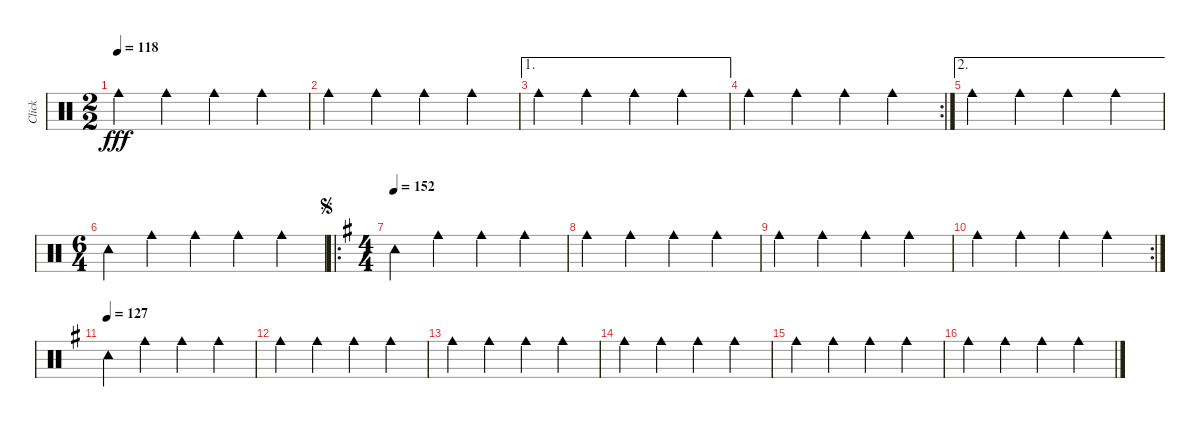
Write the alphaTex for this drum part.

\track ("Click" "Click") {mute instrument percussion}
\staff {score}
\articulation defaults
\ts (2 2)
\tempo 118
\clef neutral
\ks c "Cowbell medium (hit)".4{dy fff} "Cowbell medium (hit)".4 "Cowbell medium (hit)".4 "Cowbell medium (hit)".4
|
"Cowbell medium (hit)".4 "Cowbell medium (hit)".4 "Cowbell medium (hit)".4 "Cowbell medium (hit)".4 |
\ae 1 "Cowbell medium (hit)".4 "Cowbell medium (hit)".4 "Cowbell medium (hit)".4 "Cowbell medium (hit)".4
|
\rc 2 "Cowbell medium (hit)".4 "Cowbell medium (hit)".4 "Cowbell medium (hit)".4 "Cowbell medium (hit)".4
|
\ae 2 "Cowbell medium (hit)".4 "Cowbell medium (hit)".4 "Cowbell medium (hit)".4 "Cowbell medium (hit)".4
|
\ts (6 4)
"Tambourine (hit)".4 "Cowbell medium (hit)".4 "Cowbell medium (hit)".4 "Cowbell medium (hit)".4 "Cowbell medium (hit)".4 |
\ro
\ts (4 4)
\jump segno
\tempo 152
\ks g "Tambourine (hit)".4 "Cowbell medium (hit)".4 "Cowbell medium (hit)".4 "Cowbell medium (hit)".4
|
"Cowbell medium (hit)".4 "Cowbell medium (hit)".4 "Cowbell medium (hit)".4 "Cowbell medium (hit)".4 |
"Cowbell medium (hit)".4 "Cowbell medium (hit)".4 "Cowbell medium (hit)".4 "Cowbell medium (hit)".4 |
\rc 2 "Cowbell medium (hit)".4 "Cowbell medium (hit)".4 "Cowbell medium (hit)".4 "Cowbell medium (hit)".4
|
\tempo (127)
"Tambourine (hit)".4 "Cowbell medium (hit)".4 "Cowbell medium (hit)".4 "Cowbell medium (hit)".4 |
"Cowbell medium (hit)".4 "Cowbell medium (hit)".4 "Cowbell medium (hit)".4 "Cowbell medium (hit)".4 |
"Cowbell medium (hit)".4 "Cowbell medium (hit)".4 "Cowbell medium (hit)".4 "Cowbell medium (hit)".4 |
"Cowbell medium (hit)".4 "Cowbell medium (hit)".4 "Cowbell medium (hit)".4 "Cowbell medium (hit)".4 |
"Cowbell medium (hit)".4 "Cowbell medium (hit)".4 "Cowbell medium (hit)".4 "Cowbell medium (hit)".4 |
"Cowbell medium (hit)".4 "Cowbell medium (hit)".4 "Cowbell medium (hit)".4 "Cowbell medium (hit)".4
